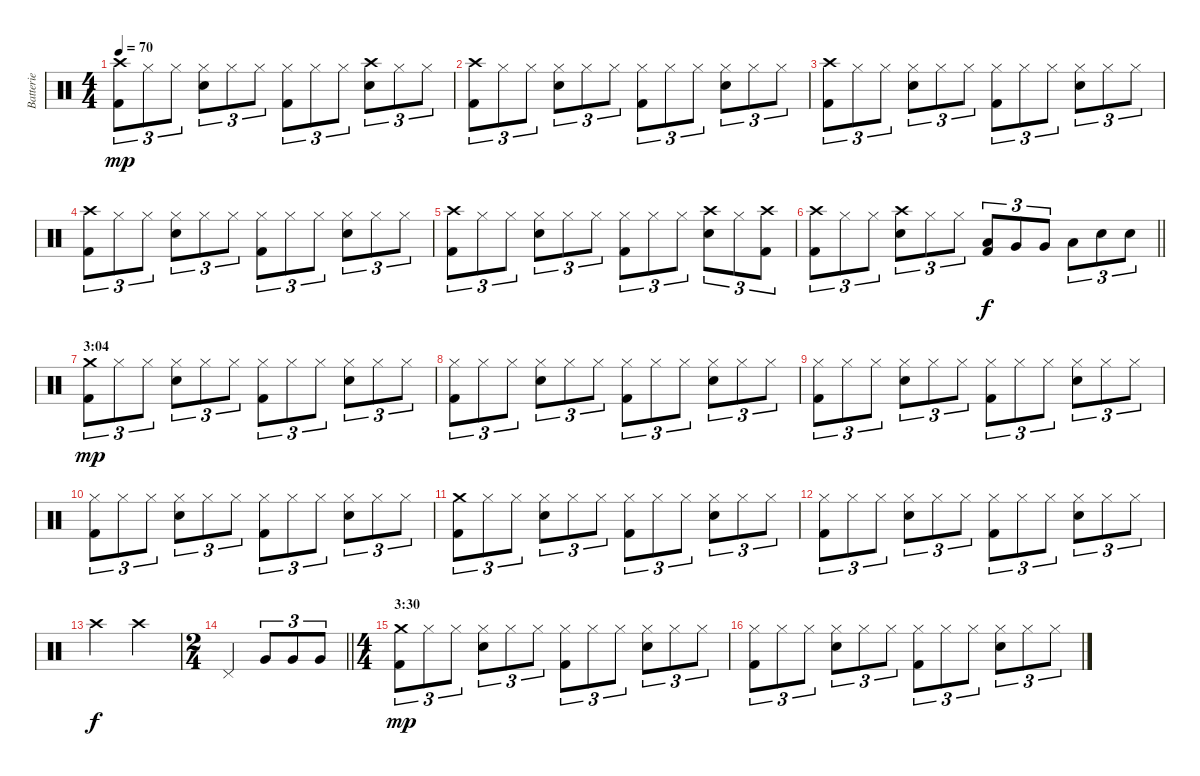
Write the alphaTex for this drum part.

\track ("Batterie" "Batterie") {instrument percussion}
\staff {score}
\articulation defaults
\ts (4 4)
\tempo 70
\clef neutral
\ks c
("Crash high (hit)" "Kick (hit) 2").8{tu (3 2) dy mp} "Hi-Hat (closed)".8{tu (3 2)} "Hi-Hat (closed)".8{tu (3 2)} ("Hi-Hat (closed)" "Snare (hit) 2").8{tu (3 2)} "Hi-Hat (closed)".8{tu (3 2)} "Hi-Hat (closed)".8{tu (3 2)} ("Hi-Hat (closed)" "Kick (hit) 2").8{tu (3 2)} "Hi-Hat (closed)".8{tu (3 2)} "Hi-Hat (closed)".8{tu (3 2)} ("Crash high (hit)" "Snare (hit) 2").8{tu (3 2)} "Hi-Hat (closed)".8{tu (3 2)} "Hi-Hat (closed)".8{tu (3 2)} |
("Crash high (hit)" "Kick (hit) 2").8{tu (3 2)} "Hi-Hat (closed)".8{tu (3 2)} "Hi-Hat (closed)".8{tu (3 2)} ("Hi-Hat (closed)" "Snare (hit) 2").8{tu (3 2)} "Hi-Hat (closed)".8{tu (3 2)} "Hi-Hat (closed)".8{tu (3 2)} ("Hi-Hat (closed)" "Kick (hit) 2").8{tu (3 2)} "Hi-Hat (closed)".8{tu (3 2)} "Hi-Hat (closed)".8{tu (3 2)} ("Hi-Hat (closed)" "Snare (hit) 2").8{tu (3 2)} "Hi-Hat (closed)".8{tu (3 2)} "Hi-Hat (closed)".8{tu (3 2)} |
("Crash high (hit)" "Kick (hit) 2").8{tu (3 2)} "Hi-Hat (closed)".8{tu (3 2)} "Hi-Hat (closed)".8{tu (3 2)} ("Hi-Hat (closed)" "Snare (hit) 2").8{tu (3 2)} "Hi-Hat (closed)".8{tu (3 2)} "Hi-Hat (closed)".8{tu (3 2)} ("Hi-Hat (closed)" "Kick (hit) 2").8{tu (3 2)} "Hi-Hat (closed)".8{tu (3 2)} "Hi-Hat (closed)".8{tu (3 2)} ("Hi-Hat (closed)" "Snare (hit) 2").8{tu (3 2)} "Hi-Hat (closed)".8{tu (3 2)} "Hi-Hat (closed)".8{tu (3 2)} |
("Crash high (hit)" "Kick (hit) 2").8{tu (3 2)} "Hi-Hat (closed)".8{tu (3 2)} "Hi-Hat (closed)".8{tu (3 2)} ("Hi-Hat (closed)" "Snare (hit) 2").8{tu (3 2)} "Hi-Hat (closed)".8{tu (3 2)} "Hi-Hat (closed)".8{tu (3 2)} ("Hi-Hat (closed)" "Kick (hit) 2").8{tu (3 2)} "Hi-Hat (closed)".8{tu (3 2)} "Hi-Hat (closed)".8{tu (3 2)} ("Hi-Hat (closed)" "Snare (hit) 2").8{tu (3 2)} "Hi-Hat (closed)".8{tu (3 2)} "Hi-Hat (closed)".8{tu (3 2)} |
("Crash high (hit)" "Kick (hit) 2").8{tu (3 2)} "Hi-Hat (closed)".8{tu (3 2)} "Hi-Hat (closed)".8{tu (3 2)} ("Hi-Hat (closed)" "Snare (hit) 2").8{tu (3 2)} "Hi-Hat (closed)".8{tu (3 2)} "Hi-Hat (closed)".8{tu (3 2)} ("Hi-Hat (closed)" "Kick (hit) 2").8{tu (3 2)} "Hi-Hat (closed)".8{tu (3 2)} "Hi-Hat (closed)".8{tu (3 2)} ("Crash high (hit)" "Snare (hit) 2").8{tu (3 2)} "Hi-Hat (closed)".8{tu (3 2)} ("Crash high (hit)" "Kick (hit) 2").8{tu (3 2)} |
\barLineRight lightlight
("Crash high (hit)" "Kick (hit) 2").8{tu (3 2)} "Hi-Hat (closed)".8{tu (3 2)} "Hi-Hat (closed)".8{tu (3 2)} ("Crash high (hit)" "Snare (hit) 2").8{tu (3 2)} "Hi-Hat (closed)".8{tu (3 2)} "Hi-Hat (closed)".8{tu (3 2)} ("Low Tom (hit)" "Kick (hit) 2").8{tu (3 2) dy f} "Very Low Tom (hit)".8{tu (3 2)} "Very Low Tom (hit)".8{tu (3 2)} "Low Tom (hit)".8{tu (3 2)} "Snare (hit) 2".8{tu (3 2)} "Snare (hit) 2".8{tu (3 2)} |
\section ("" "3:04")
("Crash medium (hit)" "Kick (hit) 2").8{tu (3 2) dy mp} "Hi-Hat (closed)".8{tu (3 2)} "Hi-Hat (closed)".8{tu (3 2)} ("Hi-Hat (closed)" "Snare (hit) 2").8{tu (3 2)} "Hi-Hat (closed)".8{tu (3 2)} "Hi-Hat (closed)".8{tu (3 2)} ("Hi-Hat (closed)" "Kick (hit) 2").8{tu (3 2)} "Hi-Hat (closed)".8{tu (3 2)} "Hi-Hat (closed)".8{tu (3 2)} ("Hi-Hat (closed)" "Snare (hit) 2").8{tu (3 2)} "Hi-Hat (closed)".8{tu (3 2)} "Hi-Hat (closed)".8{tu (3 2)} |
("Hi-Hat (closed)" "Kick (hit) 2").8{tu (3 2)} "Hi-Hat (closed)".8{tu (3 2)} "Hi-Hat (closed)".8{tu (3 2)} ("Hi-Hat (closed)" "Snare (hit) 2").8{tu (3 2)} "Hi-Hat (closed)".8{tu (3 2)} "Hi-Hat (closed)".8{tu (3 2)} ("Hi-Hat (closed)" "Kick (hit) 2").8{tu (3 2)} "Hi-Hat (closed)".8{tu (3 2)} "Hi-Hat (closed)".8{tu (3 2)} ("Hi-Hat (closed)" "Snare (hit) 2").8{tu (3 2)} "Hi-Hat (closed)".8{tu (3 2)} "Hi-Hat (closed)".8{tu (3 2)} |
("Hi-Hat (closed)" "Kick (hit) 2").8{tu (3 2)} "Hi-Hat (closed)".8{tu (3 2)} "Hi-Hat (closed)".8{tu (3 2)} ("Hi-Hat (closed)" "Snare (hit) 2").8{tu (3 2)} "Hi-Hat (closed)".8{tu (3 2)} "Hi-Hat (closed)".8{tu (3 2)} ("Hi-Hat (closed)" "Kick (hit) 2").8{tu (3 2)} "Hi-Hat (closed)".8{tu (3 2)} "Hi-Hat (closed)".8{tu (3 2)} ("Hi-Hat (closed)" "Snare (hit) 2").8{tu (3 2)} "Hi-Hat (closed)".8{tu (3 2)} "Hi-Hat (closed)".8{tu (3 2)} |
("Hi-Hat (closed)" "Kick (hit) 2").8{tu (3 2)} "Hi-Hat (closed)".8{tu (3 2)} "Hi-Hat (closed)".8{tu (3 2)} ("Hi-Hat (closed)" "Snare (hit) 2").8{tu (3 2)} "Hi-Hat (closed)".8{tu (3 2)} "Hi-Hat (closed)".8{tu (3 2)} ("Hi-Hat (closed)" "Kick (hit) 2").8{tu (3 2)} "Hi-Hat (closed)".8{tu (3 2)} "Hi-Hat (closed)".8{tu (3 2)} ("Hi-Hat (closed)" "Snare (hit) 2").8{tu (3 2)} "Hi-Hat (closed)".8{tu (3 2)} "Hi-Hat (closed)".8{tu (3 2)} |
("Crash medium (hit)" "Kick (hit) 2").8{tu (3 2)} "Hi-Hat (closed)".8{tu (3 2)} "Hi-Hat (closed)".8{tu (3 2)} ("Hi-Hat (closed)" "Snare (hit) 2").8{tu (3 2)} "Hi-Hat (closed)".8{tu (3 2)} "Hi-Hat (closed)".8{tu (3 2)} ("Hi-Hat (closed)" "Kick (hit) 2").8{tu (3 2)} "Hi-Hat (closed)".8{tu (3 2)} "Hi-Hat (closed)".8{tu (3 2)} ("Hi-Hat (closed)" "Snare (hit) 2").8{tu (3 2)} "Hi-Hat (closed)".8{tu (3 2)} "Hi-Hat (closed)".8{tu (3 2)} |
("Hi-Hat (closed)" "Kick (hit) 2").8{tu (3 2)} "Hi-Hat (closed)".8{tu (3 2)} "Hi-Hat (closed)".8{tu (3 2)} ("Hi-Hat (closed)" "Snare (hit) 2").8{tu (3 2)} "Hi-Hat (closed)".8{tu (3 2)} "Hi-Hat (closed)".8{tu (3 2)} ("Hi-Hat (closed)" "Kick (hit) 2").8{tu (3 2)} "Hi-Hat (closed)".8{tu (3 2)} "Hi-Hat (closed)".8{tu (3 2)} ("Hi-Hat (closed)" "Snare (hit) 2").8{tu (3 2)} "Hi-Hat (closed)".8{tu (3 2)} "Hi-Hat (closed)".8{tu (3 2)} |
"Crash high (hit)".2{dy f} "Crash high (hit)".2 |
\ts (2 4)
\barLineRight lightlight "Pedal Hi-Hat (hit)".4 "Very Low Tom (hit)".8{tu (3 2)} "Very Low Tom (hit)".8{tu (3 2)} "Very Low Tom (hit)".8{tu (3 2)}
|
\ts (4 4)
\section ("" "3:30")
("Crash medium (hit)" "Kick (hit) 2").8{tu (3 2) dy mp} "Hi-Hat (closed)".8{tu (3 2)} "Hi-Hat (closed)".8{tu (3 2)} ("Hi-Hat (closed)" "Snare (hit) 2").8{tu (3 2)} "Hi-Hat (closed)".8{tu (3 2)} "Hi-Hat (closed)".8{tu (3 2)} ("Hi-Hat (closed)" "Kick (hit) 2").8{tu (3 2)} "Hi-Hat (closed)".8{tu (3 2)} "Hi-Hat (closed)".8{tu (3 2)} ("Hi-Hat (closed)" "Snare (hit) 2").8{tu (3 2)} "Hi-Hat (closed)".8{tu (3 2)} "Hi-Hat (closed)".8{tu (3 2)} |
("Hi-Hat (closed)" "Kick (hit) 2").8{tu (3 2)} "Hi-Hat (closed)".8{tu (3 2)} "Hi-Hat (closed)".8{tu (3 2)} ("Hi-Hat (closed)" "Snare (hit) 2").8{tu (3 2)} "Hi-Hat (closed)".8{tu (3 2)} "Hi-Hat (closed)".8{tu (3 2)} ("Hi-Hat (closed)" "Kick (hit) 2").8{tu (3 2)} "Hi-Hat (closed)".8{tu (3 2)} "Hi-Hat (closed)".8{tu (3 2)} ("Hi-Hat (closed)" "Snare (hit) 2").8{tu (3 2)} "Hi-Hat (closed)".8{tu (3 2)} "Hi-Hat (closed)".8{tu (3 2)}
